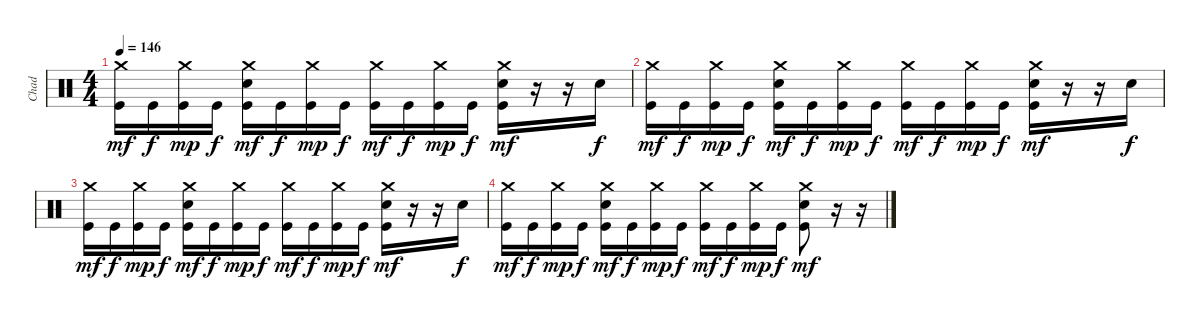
\track ("Chad" "Chad") {instrument percussion}
\staff {score}
\articulation defaults
\ts (4 4)
\tempo 146
\clef neutral
\ks c
("Crash medium (hit)" "Kick (hit)").16{dy mf} "Kick (hit)".16{dy f} ("Crash medium (hit)" "Kick (hit)").16{dy mp} "Kick (hit)".16{dy f} ("Crash medium (hit)" "Snare (hit) 2" "Kick (hit)").16{dy mf} "Kick (hit)".16{dy f} ("Crash medium (hit)" "Kick (hit)").16{dy mp} "Kick (hit)".16{dy f} ("Crash medium (hit)" "Kick (hit)").16{dy mf} "Kick (hit)".16{dy f} ("Crash medium (hit)" "Kick (hit)").16{dy mp} "Kick (hit)".16{dy f} ("Crash medium (hit)" "Snare (hit) 2" "Kick (hit)").16{dy mf} r.16 r.16 "Snare (hit) 2".16{dy f} |
("Crash medium (hit)" "Kick (hit)").16{dy mf} "Kick (hit)".16{dy f} ("Crash medium (hit)" "Kick (hit)").16{dy mp} "Kick (hit)".16{dy f} ("Crash medium (hit)" "Snare (hit) 2" "Kick (hit)").16{dy mf} "Kick (hit)".16{dy f} ("Crash medium (hit)" "Kick (hit)").16{dy mp} "Kick (hit)".16{dy f} ("Crash medium (hit)" "Kick (hit)").16{dy mf} "Kick (hit)".16{dy f} ("Crash medium (hit)" "Kick (hit)").16{dy mp} "Kick (hit)".16{dy f} ("Crash medium (hit)" "Snare (hit) 2" "Kick (hit)").16{dy mf} r.16 r.16 "Snare (hit) 2".16{dy f} |
("Crash medium (hit)" "Kick (hit)").16{dy mf} "Kick (hit)".16{dy f} ("Crash medium (hit)" "Kick (hit)").16{dy mp} "Kick (hit)".16{dy f} ("Crash medium (hit)" "Snare (hit) 2" "Kick (hit)").16{dy mf} "Kick (hit)".16{dy f} ("Crash medium (hit)" "Kick (hit)").16{dy mp} "Kick (hit)".16{dy f} ("Crash medium (hit)" "Kick (hit)").16{dy mf} "Kick (hit)".16{dy f} ("Crash medium (hit)" "Kick (hit)").16{dy mp} "Kick (hit)".16{dy f} ("Crash medium (hit)" "Snare (hit) 2" "Kick (hit)").16{dy mf} r.16 r.16 "Snare (hit) 2".16{dy f} |
("Crash medium (hit)" "Kick (hit)").16{dy mf} "Kick (hit)".16{dy f} ("Crash medium (hit)" "Kick (hit)").16{dy mp} "Kick (hit)".16{dy f} ("Crash medium (hit)" "Snare (hit) 2" "Kick (hit)").16{dy mf} "Kick (hit)".16{dy f} ("Crash medium (hit)" "Kick (hit)").16{dy mp} "Kick (hit)".16{dy f} ("Crash medium (hit)" "Kick (hit)").16{dy mf} "Kick (hit)".16{dy f} ("Crash medium (hit)" "Kick (hit)").16{dy mp} "Kick (hit)".16{dy f} ("Crash medium (hit)" "Snare (hit) 2" "Kick (hit)").8{dy mf} r.16 r.16
